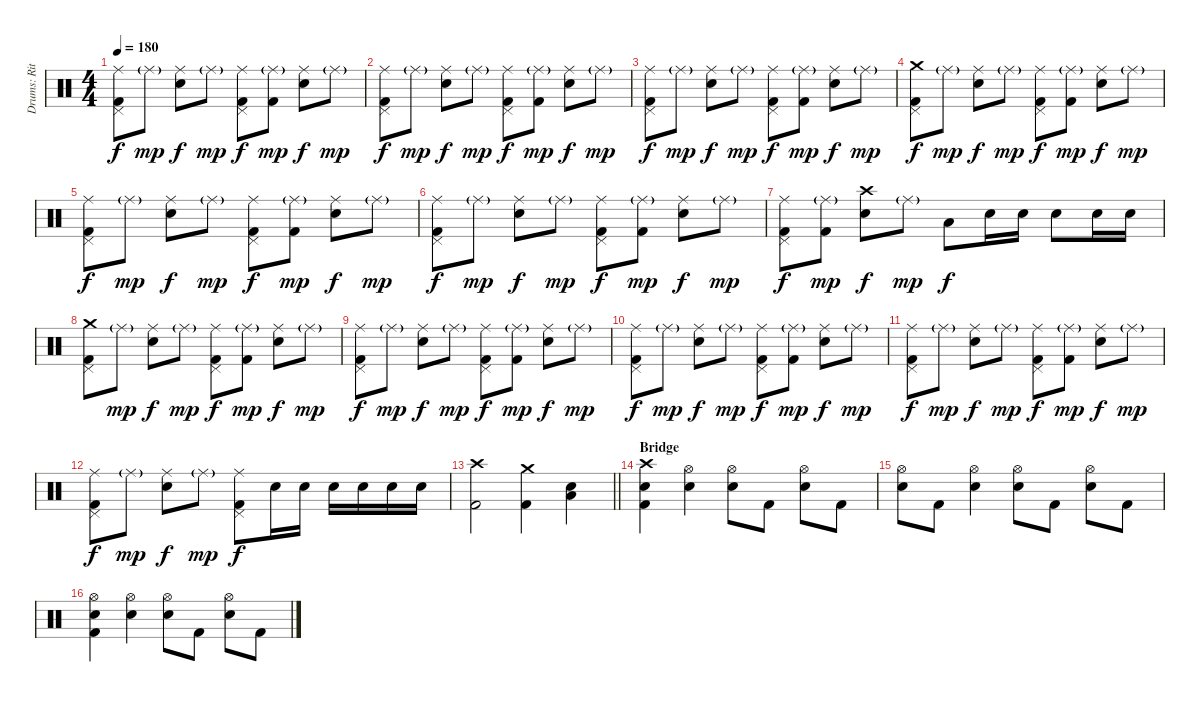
\track ("Drums: Ritsu Tainaka" "Drums: Rit") {instrument percussion}
\staff {score}
\articulation defaults
\ts (4 4)
\tempo 180
\clef neutral
\ks c
("Ride (middle)" "Pedal Hi-Hat (hit)" "Kick (hit) 2").8{dy f} "Ride (middle)"{g}.8{dy mp} ("Ride (middle)" "Electric Snare (hit)").8{dy f} "Ride (middle)"{g}.8{dy mp} ("Ride (middle)" "Pedal Hi-Hat (hit)" "Kick (hit) 2").8{dy f} ("Ride (middle)"{g} "Kick (hit) 2").8{dy mp} ("Ride (middle)" "Electric Snare (hit)").8{dy f} "Ride (middle)"{g}.8{dy mp} |
("Ride (middle)" "Pedal Hi-Hat (hit)" "Kick (hit) 2").8{dy f} "Ride (middle)"{g}.8{dy mp} ("Ride (middle)" "Electric Snare (hit)").8{dy f} "Ride (middle)"{g}.8{dy mp} ("Ride (middle)" "Pedal Hi-Hat (hit)" "Kick (hit) 2").8{dy f} ("Ride (middle)"{g} "Kick (hit) 2").8{dy mp} ("Ride (middle)" "Electric Snare (hit)").8{dy f} "Ride (middle)"{g}.8{dy mp} |
("Ride (middle)" "Pedal Hi-Hat (hit)" "Kick (hit) 2").8{dy f} "Ride (middle)"{g}.8{dy mp} ("Ride (middle)" "Electric Snare (hit)").8{dy f} "Ride (middle)"{g}.8{dy mp} ("Ride (middle)" "Pedal Hi-Hat (hit)" "Kick (hit) 2").8{dy f} ("Ride (middle)"{g} "Kick (hit) 2").8{dy mp} ("Ride (middle)" "Electric Snare (hit)").8{dy f} "Ride (middle)"{g}.8{dy mp} |
("Crash medium (hit)" "Pedal Hi-Hat (hit)" "Kick (hit) 2").8{dy f} "Ride (middle)"{g}.8{dy mp} ("Ride (middle)" "Electric Snare (hit)").8{dy f} "Ride (middle)"{g}.8{dy mp} ("Ride (middle)" "Pedal Hi-Hat (hit)" "Kick (hit) 2").8{dy f} ("Ride (middle)"{g} "Kick (hit) 2").8{dy mp} ("Ride (middle)" "Electric Snare (hit)").8{dy f} "Ride (middle)"{g}.8{dy mp} |
("Ride (middle)" "Pedal Hi-Hat (hit)" "Kick (hit) 2").8{dy f} "Ride (middle)"{g}.8{dy mp} ("Ride (middle)" "Electric Snare (hit)").8{dy f} "Ride (middle)"{g}.8{dy mp} ("Ride (middle)" "Pedal Hi-Hat (hit)" "Kick (hit) 2").8{dy f} ("Ride (middle)"{g} "Kick (hit) 2").8{dy mp} ("Ride (middle)" "Electric Snare (hit)").8{dy f} "Ride (middle)"{g}.8{dy mp} |
("Ride (middle)" "Pedal Hi-Hat (hit)" "Kick (hit) 2").8{dy f} "Ride (middle)"{g}.8{dy mp} ("Ride (middle)" "Electric Snare (hit)").8{dy f} "Ride (middle)"{g}.8{dy mp} ("Ride (middle)" "Pedal Hi-Hat (hit)" "Kick (hit) 2").8{dy f} ("Ride (middle)"{g} "Kick (hit) 2").8{dy mp} ("Ride (middle)" "Electric Snare (hit)").8{dy f} "Ride (middle)"{g}.8{dy mp} |
("Ride (middle)" "Pedal Hi-Hat (hit)" "Kick (hit) 2").8{dy f} ("Ride (middle)"{g} "Kick (hit) 2").8{dy mp} ("Crash high (hit)" "Electric Snare (hit)").8{dy f} "Ride (middle)"{g}.8{dy mp} "Low Tom (hit)".8{dy f} "Electric Snare (hit)".16 "Electric Snare (hit)".16 "Electric Snare (hit)".8 "Electric Snare (hit)".16 "Electric Snare (hit)".16 |
("Crash medium (hit)" "Pedal Hi-Hat (hit)" "Kick (hit) 2").8 "Ride (middle)"{g}.8{dy mp} ("Ride (middle)" "Electric Snare (hit)").8{dy f} "Ride (middle)"{g}.8{dy mp} ("Ride (middle)" "Pedal Hi-Hat (hit)" "Kick (hit) 2").8{dy f} ("Ride (middle)"{g} "Kick (hit) 2").8{dy mp} ("Ride (middle)" "Electric Snare (hit)").8{dy f} "Ride (middle)"{g}.8{dy mp} |
("Ride (middle)" "Pedal Hi-Hat (hit)" "Kick (hit) 2").8{dy f} "Ride (middle)"{g}.8{dy mp} ("Ride (middle)" "Electric Snare (hit)").8{dy f} "Ride (middle)"{g}.8{dy mp} ("Ride (middle)" "Pedal Hi-Hat (hit)" "Kick (hit) 2").8{dy f} ("Ride (middle)"{g} "Kick (hit) 2").8{dy mp} ("Ride (middle)" "Electric Snare (hit)").8{dy f} "Ride (middle)"{g}.8{dy mp} |
("Ride (middle)" "Pedal Hi-Hat (hit)" "Kick (hit) 2").8{dy f} "Ride (middle)"{g}.8{dy mp} ("Ride (middle)" "Electric Snare (hit)").8{dy f} "Ride (middle)"{g}.8{dy mp} ("Ride (middle)" "Pedal Hi-Hat (hit)" "Kick (hit) 2").8{dy f} ("Ride (middle)"{g} "Kick (hit) 2").8{dy mp} ("Ride (middle)" "Electric Snare (hit)").8{dy f} "Ride (middle)"{g}.8{dy mp} |
("Ride (middle)" "Pedal Hi-Hat (hit)" "Kick (hit) 2").8{dy f} "Ride (middle)"{g}.8{dy mp} ("Ride (middle)" "Electric Snare (hit)").8{dy f} "Ride (middle)"{g}.8{dy mp} ("Ride (middle)" "Pedal Hi-Hat (hit)" "Kick (hit) 2").8{dy f} ("Ride (middle)"{g} "Kick (hit) 2").8{dy mp} ("Ride (middle)" "Electric Snare (hit)").8{dy f} "Ride (middle)"{g}.8{dy mp} |
("Ride (middle)" "Pedal Hi-Hat (hit)" "Kick (hit) 2").8{dy f} "Ride (middle)"{g}.8{dy mp} ("Ride (middle)" "Electric Snare (hit)").8{dy f} "Ride (middle)"{g}.8{dy mp} ("Ride (middle)" "Pedal Hi-Hat (hit)" "Kick (hit) 2").8{dy f} "Electric Snare (hit)".16 "Electric Snare (hit)".16 "Electric Snare (hit)".16 "Electric Snare (hit)".16 "Electric Snare (hit)".16 "Electric Snare (hit)".16 |
\barLineRight lightlight
("Crash high (hit)" "Kick (hit) 2").2 ("Crash medium (hit)" "Kick (hit) 2").4 ("Electric Snare (hit)" "Low Floor Tom (hit)").4 |
\section ("" "Bridge")
("Crash high (hit)" "Electric Snare (hit)" "Kick (hit) 2").4 ("Hi-Hat (open)" "Electric Snare (hit)").4 ("Hi-Hat (open)" "Electric Snare (hit)").8 "Kick (hit) 2".8 ("Hi-Hat (open)" "Electric Snare (hit)").8 "Kick (hit) 2".8 |
("Hi-Hat (open)" "Electric Snare (hit)").8 "Kick (hit) 2".8 ("Hi-Hat (open)" "Electric Snare (hit)").4 ("Hi-Hat (open)" "Electric Snare (hit)").8 "Kick (hit) 2".8 ("Hi-Hat (open)" "Electric Snare (hit)").8 "Kick (hit) 2".8 |
("Hi-Hat (open)" "Electric Snare (hit)" "Kick (hit) 2").4 ("Hi-Hat (open)" "Electric Snare (hit)").4 ("Hi-Hat (open)" "Electric Snare (hit)").8 "Kick (hit) 2".8 ("Hi-Hat (open)" "Electric Snare (hit)").8 "Kick (hit) 2".8
